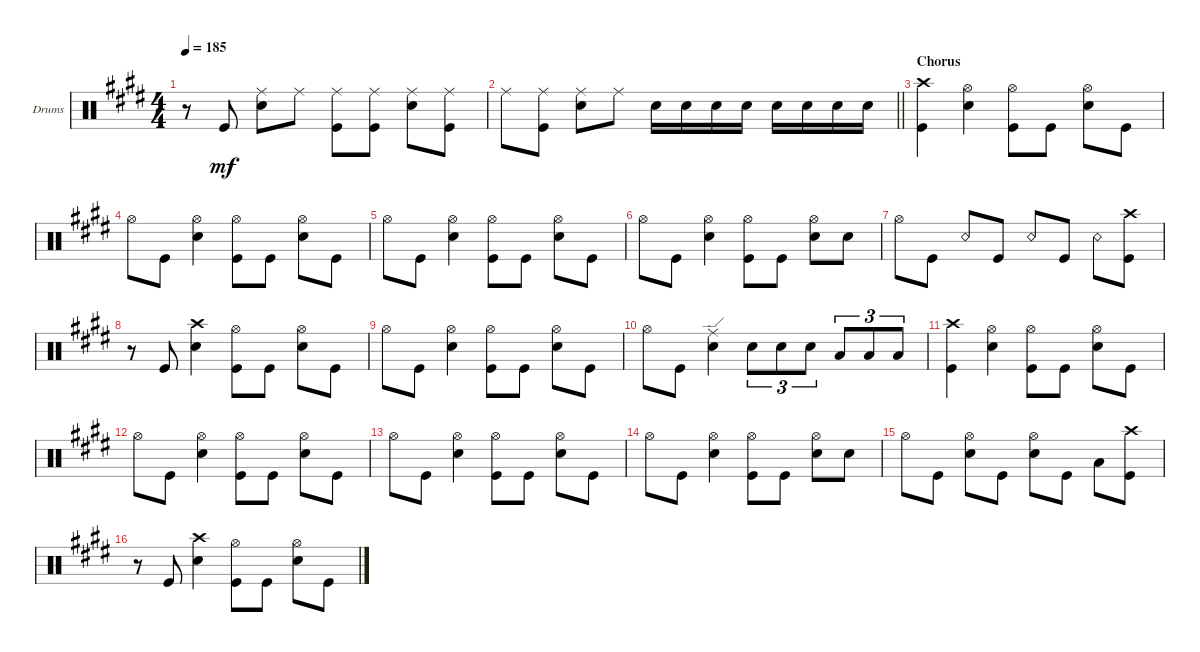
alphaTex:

\defaultSystemsLayout 4
\bracketExtendMode groupsimilarinstruments
\firstSystemTrackNameOrientation horizontal
\otherSystemsTrackNameOrientation horizontal
\track ("Drums" "Drums") {instrument percussion}
\staff {score}
\articulation defaults
\ts (4 4)
\tempo 185
\clef neutral
\ks e
r.8{dy mf} "Kick (hit)".8 ("Snare (hit) 2" "Ride (middle)").8 "Ride (middle)".8 ("Kick (hit)" "Ride (middle)").8 ("Kick (hit)" "Ride (middle)").8 ("Snare (hit) 2" "Ride (middle)").8 ("Ride (middle)" "Kick (hit)").8 |
\barLineRight lightlight "Ride (middle)".8
("Kick (hit)" "Ride (middle)").8 ("Snare (hit) 2" "Ride (middle)").8 "Ride (middle)".8 "Snare (hit) 2".16 "Snare (hit) 2".16 "Snare (hit) 2".16 "Snare (hit) 2".16 "Snare (hit) 2".16 "Snare (hit) 2".16 "Snare (hit) 2".16 "Snare (hit) 2".16 |
\section ("" "Chorus")
("Kick (hit)" "Crash high (hit)").4 ("Snare (hit) 2" "Hi-Hat (open)").4 ("Kick (hit)" "Hi-Hat (open)").8 "Kick (hit)".8 ("Snare (hit) 2" "Hi-Hat (open)").8 "Kick (hit)".8 |
"Hi-Hat (open)".8 "Kick (hit)".8 ("Snare (hit) 2" "Hi-Hat (open)").4 ("Kick (hit)" "Hi-Hat (open)").8 "Kick (hit)".8 ("Snare (hit) 2" "Hi-Hat (open)").8 "Kick (hit)".8 |
"Hi-Hat (open)".8 "Kick (hit)".8 ("Snare (hit) 2" "Hi-Hat (open)").4 ("Kick (hit)" "Hi-Hat (open)").8 "Kick (hit)".8 ("Snare (hit) 2" "Hi-Hat (open)").8 "Kick (hit)".8 |
"Hi-Hat (open)".8 "Kick (hit)".8 ("Snare (hit) 2" "Hi-Hat (open)").4 ("Kick (hit)" "Hi-Hat (open)").8 "Kick (hit)".8 ("Snare (hit) 2" "Hi-Hat (open)").8 "Snare (hit) 2".8 |
"Hi-Hat (open)".8 "Kick (hit)".8 "Snare (rim shot)".8 "Kick (hit)".8 "Snare (rim shot)".8 "Kick (hit)".8 "Snare (rim shot)".8 ("Kick (hit)" "Crash high (hit)").8 |
r.8 "Kick (hit)".8 ("Snare (hit) 2" "Crash high (hit)").4 ("Kick (hit)" "Hi-Hat (open)").8 "Kick (hit)".8 ("Snare (hit) 2" "Hi-Hat (open)").8 "Kick (hit)".8 |
"Hi-Hat (open)".8 "Kick (hit)".8 ("Snare (hit) 2" "Hi-Hat (open)").4 ("Kick (hit)" "Hi-Hat (open)").8 "Kick (hit)".8 ("Snare (hit) 2" "Hi-Hat (open)").8 "Kick (hit)".8 |
"Hi-Hat (open)".8 "Kick (hit)".8 ("Snare (hit) 2" "Ride (edge)").4 "Snare (hit) 2".8{tu (3 2)} "Snare (hit) 2".8{tu (3 2)} "Snare (hit) 2".8{tu (3 2)} "Low Tom (hit)".8{tu (3 2)} "Low Tom (hit)".8{tu (3 2)} "Low Tom (hit)".8{tu (3 2)} |
("Kick (hit)" "Crash high (hit)").4 ("Snare (hit) 2" "Hi-Hat (open)").4 ("Kick (hit)" "Hi-Hat (open)").8 "Kick (hit)".8 ("Snare (hit) 2" "Hi-Hat (open)").8 "Kick (hit)".8 |
"Hi-Hat (open)".8 "Kick (hit)".8 ("Snare (hit) 2" "Hi-Hat (open)").4 ("Kick (hit)" "Hi-Hat (open)").8 "Kick (hit)".8 ("Snare (hit) 2" "Hi-Hat (open)").8 "Kick (hit)".8 |
"Hi-Hat (open)".8 "Kick (hit)".8 ("Snare (hit) 2" "Hi-Hat (open)").4 ("Kick (hit)" "Hi-Hat (open)").8 "Kick (hit)".8 ("Snare (hit) 2" "Hi-Hat (open)").8 "Kick (hit)".8 |
"Hi-Hat (open)".8 "Kick (hit)".8 ("Snare (hit) 2" "Hi-Hat (open)").4 ("Kick (hit)" "Hi-Hat (open)").8 "Kick (hit)".8 ("Snare (hit) 2" "Hi-Hat (open)").8 "Snare (hit) 2".8 |
"Hi-Hat (open)".8 "Kick (hit)".8 ("Snare (hit) 2" "Hi-Hat (open)").8 "Kick (hit)".8 ("Snare (hit) 2" "Hi-Hat (open)").8 "Kick (hit)".8 "Low Tom (hit)".8 ("Kick (hit)" "Crash high (hit)").8 |
r.8 "Kick (hit)".8 ("Snare (hit) 2" "Crash high (hit)").4 ("Kick (hit)" "Hi-Hat (open)").8 "Kick (hit)".8 ("Snare (hit) 2" "Hi-Hat (open)").8 "Kick (hit)".8
